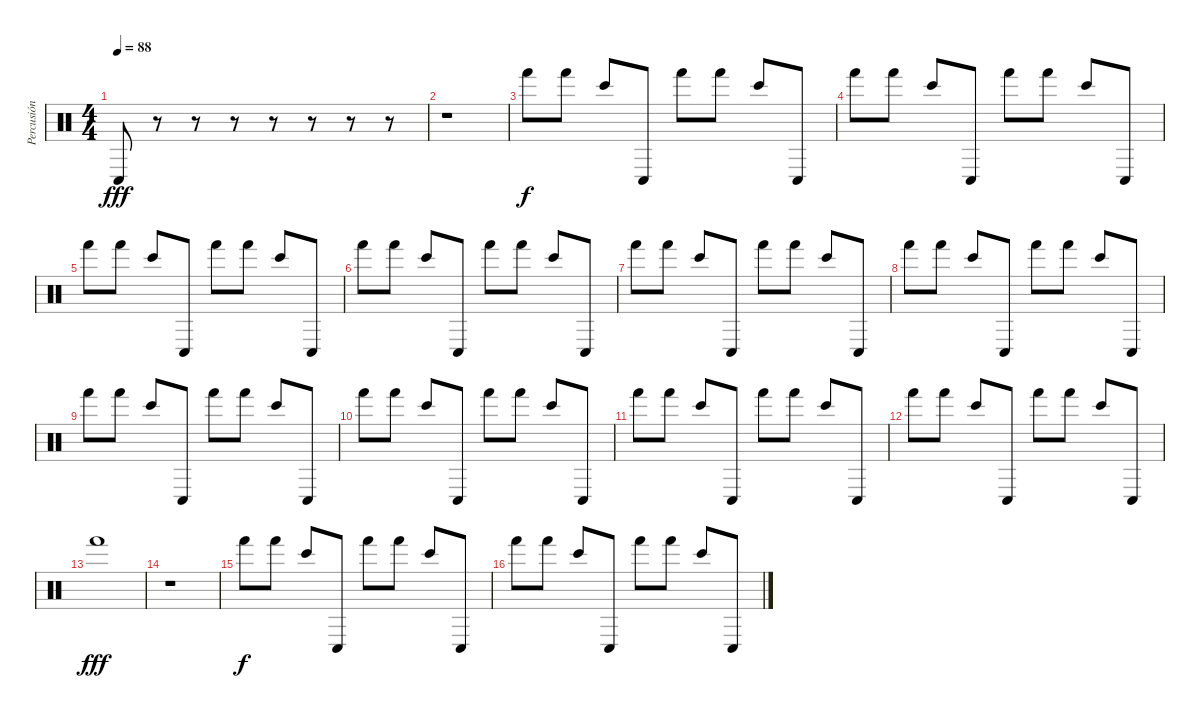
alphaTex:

\track ("Percusión" "Percusión") {instrument percussion}
\staff {score}
\articulation defaults
\ts (4 4)
\tempo 88
\clef neutral
\ks c "Conga low (hit)".8{dy fff}
r.8 r.8 r.8 r.8 r.8 r.8 r.8 |
r.1 |
"Hand (hit)".8{dy f} "Hand (hit)".8 "Bongo High (hit)".8 "Conga low (hit)".8 "Hand (hit)".8 "Hand (hit)".8 "Bongo High (hit)".8 "Conga low (hit)".8 |
"Hand (hit)".8 "Hand (hit)".8 "Bongo High (hit)".8 "Conga low (hit)".8 "Hand (hit)".8 "Hand (hit)".8 "Bongo High (hit)".8 "Conga low (hit)".8 |
"Hand (hit)".8 "Hand (hit)".8 "Bongo High (hit)".8 "Conga low (hit)".8 "Hand (hit)".8 "Hand (hit)".8 "Bongo High (hit)".8 "Conga low (hit)".8 |
"Hand (hit)".8 "Hand (hit)".8 "Bongo High (hit)".8 "Conga low (hit)".8 "Hand (hit)".8 "Hand (hit)".8 "Bongo High (hit)".8 "Conga low (hit)".8 |
"Hand (hit)".8 "Hand (hit)".8 "Bongo High (hit)".8 "Conga low (hit)".8 "Hand (hit)".8 "Hand (hit)".8 "Bongo High (hit)".8 "Conga low (hit)".8 |
"Hand (hit)".8 "Hand (hit)".8 "Bongo High (hit)".8 "Conga low (hit)".8 "Hand (hit)".8 "Hand (hit)".8 "Bongo High (hit)".8 "Conga low (hit)".8 |
"Hand (hit)".8 "Hand (hit)".8 "Bongo High (hit)".8 "Conga low (hit)".8 "Hand (hit)".8 "Hand (hit)".8 "Bongo High (hit)".8 "Conga low (hit)".8 |
"Hand (hit)".8 "Hand (hit)".8 "Bongo High (hit)".8 "Conga low (hit)".8 "Hand (hit)".8 "Hand (hit)".8 "Bongo High (hit)".8 "Conga low (hit)".8 |
"Hand (hit)".8 "Hand (hit)".8 "Bongo High (hit)".8 "Conga low (hit)".8 "Hand (hit)".8 "Hand (hit)".8 "Bongo High (hit)".8 "Conga low (hit)".8 |
"Hand (hit)".8 "Hand (hit)".8 "Bongo High (hit)".8 "Conga low (hit)".8 "Hand (hit)".8 "Hand (hit)".8 "Bongo High (hit)".8 "Conga low (hit)".8 |
"Hand (hit)".1{dy fff} |
r.1 |
"Hand (hit)".8{dy f} "Hand (hit)".8 "Bongo High (hit)".8 "Conga low (hit)".8 "Hand (hit)".8 "Hand (hit)".8 "Bongo High (hit)".8 "Conga low (hit)".8 |
"Hand (hit)".8 "Hand (hit)".8 "Bongo High (hit)".8 "Conga low (hit)".8 "Hand (hit)".8 "Hand (hit)".8 "Bongo High (hit)".8 "Conga low (hit)".8
